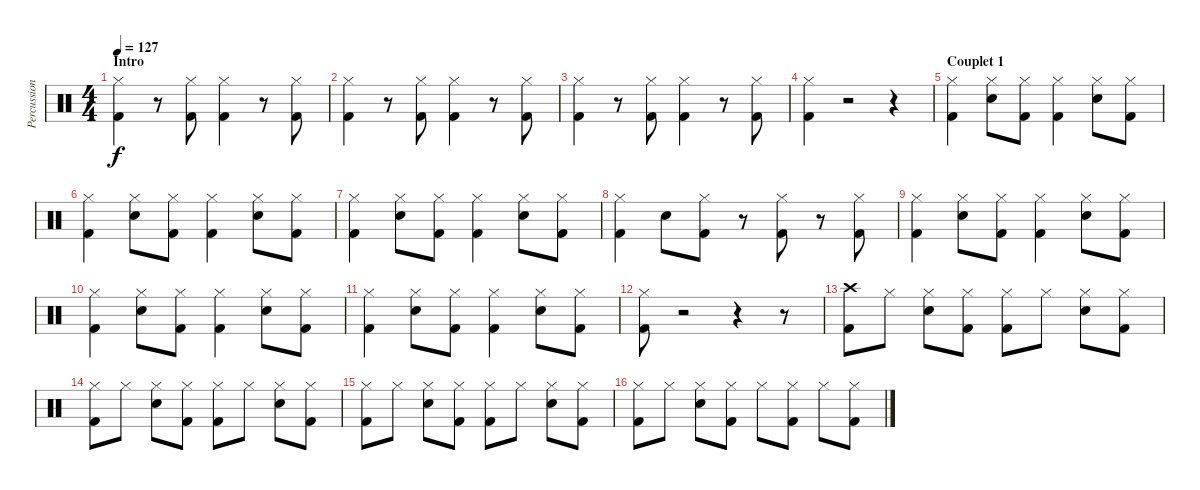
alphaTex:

\track ("Percussions" "Percussion") {instrument percussion}
\staff {score}
\articulation defaults
\ts (4 4)
\section ("" "Intro")
\tempo 127
\clef neutral
\ks c
("Hi-Hat (closed)" "Kick (hit) 2").4{dy f} r.8 ("Hi-Hat (closed)" "Kick (hit) 2").8 ("Hi-Hat (closed)" "Kick (hit) 2").4 r.8 ("Hi-Hat (closed)" "Kick (hit) 2").8 |
("Hi-Hat (closed)" "Kick (hit) 2").4 r.8 ("Hi-Hat (closed)" "Kick (hit) 2").8 ("Hi-Hat (closed)" "Kick (hit) 2").4 r.8 ("Hi-Hat (closed)" "Kick (hit) 2").8 |
("Hi-Hat (closed)" "Kick (hit) 2").4 r.8 ("Hi-Hat (closed)" "Kick (hit) 2").8 ("Hi-Hat (closed)" "Kick (hit) 2").4 r.8 ("Hi-Hat (closed)" "Kick (hit) 2").8 |
("Hi-Hat (closed)" "Kick (hit) 2").4 r.2 r.4 |
\section ("" "Couplet 1")
("Hi-Hat (closed)" "Kick (hit) 2").4 ("Hi-Hat (closed)" "Electric Snare (hit)").8 ("Hi-Hat (closed)" "Kick (hit) 2").8 ("Hi-Hat (closed)" "Kick (hit) 2").4 ("Hi-Hat (closed)" "Electric Snare (hit)").8 ("Hi-Hat (closed)" "Kick (hit) 2").8 |
("Hi-Hat (closed)" "Kick (hit) 2").4 ("Hi-Hat (closed)" "Electric Snare (hit)").8 ("Hi-Hat (closed)" "Kick (hit) 2").8 ("Hi-Hat (closed)" "Kick (hit) 2").4 ("Hi-Hat (closed)" "Electric Snare (hit)").8 ("Hi-Hat (closed)" "Kick (hit) 2").8 |
("Hi-Hat (closed)" "Kick (hit) 2").4 ("Hi-Hat (closed)" "Electric Snare (hit)").8 ("Hi-Hat (closed)" "Kick (hit) 2").8 ("Hi-Hat (closed)" "Kick (hit) 2").4 ("Hi-Hat (closed)" "Electric Snare (hit)").8 ("Hi-Hat (closed)" "Kick (hit) 2").8 |
("Hi-Hat (closed)" "Kick (hit) 2").4 "Electric Snare (hit)".8 ("Hi-Hat (closed)" "Kick (hit) 2").8 r.8 ("Hi-Hat (closed)" "Kick (hit) 2").8 r.8 ("Hi-Hat (closed)" "Kick (hit) 2").8 |
("Hi-Hat (closed)" "Kick (hit) 2").4 ("Hi-Hat (closed)" "Electric Snare (hit)").8 ("Hi-Hat (closed)" "Kick (hit) 2").8 ("Hi-Hat (closed)" "Kick (hit) 2").4 ("Hi-Hat (closed)" "Electric Snare (hit)").8 ("Hi-Hat (closed)" "Kick (hit) 2").8 |
("Hi-Hat (closed)" "Kick (hit) 2").4 ("Hi-Hat (closed)" "Electric Snare (hit)").8 ("Hi-Hat (closed)" "Kick (hit) 2").8 ("Hi-Hat (closed)" "Kick (hit) 2").4 ("Hi-Hat (closed)" "Electric Snare (hit)").8 ("Hi-Hat (closed)" "Kick (hit) 2").8 |
("Hi-Hat (closed)" "Kick (hit) 2").4 ("Hi-Hat (closed)" "Electric Snare (hit)").8 ("Hi-Hat (closed)" "Kick (hit) 2").8 ("Hi-Hat (closed)" "Kick (hit) 2").4 ("Hi-Hat (closed)" "Electric Snare (hit)").8 ("Hi-Hat (closed)" "Kick (hit) 2").8 |
("Hi-Hat (closed)" "Kick (hit) 2").8 r.2 r.4 r.8 |
("Crash high (hit)" "Kick (hit) 2").8 "Hi-Hat (closed)".8 ("Hi-Hat (closed)" "Electric Snare (hit)").8 ("Hi-Hat (closed)" "Kick (hit) 2").8 ("Hi-Hat (closed)" "Kick (hit) 2").8 "Hi-Hat (closed)".8 ("Hi-Hat (closed)" "Electric Snare (hit)").8 ("Hi-Hat (closed)" "Kick (hit) 2").8 |
("Hi-Hat (closed)" "Kick (hit) 2").8 "Hi-Hat (closed)".8 ("Hi-Hat (closed)" "Electric Snare (hit)").8 ("Hi-Hat (closed)" "Kick (hit) 2").8 ("Hi-Hat (closed)" "Kick (hit) 2").8 "Hi-Hat (closed)".8 ("Hi-Hat (closed)" "Electric Snare (hit)").8 ("Hi-Hat (closed)" "Kick (hit) 2").8 |
("Hi-Hat (closed)" "Kick (hit) 2").8 "Hi-Hat (closed)".8 ("Hi-Hat (closed)" "Electric Snare (hit)").8 ("Hi-Hat (closed)" "Kick (hit) 2").8 ("Hi-Hat (closed)" "Kick (hit) 2").8 "Hi-Hat (closed)".8 ("Hi-Hat (closed)" "Electric Snare (hit)").8 ("Hi-Hat (closed)" "Kick (hit) 2").8 |
("Hi-Hat (closed)" "Kick (hit) 2").8 "Hi-Hat (closed)".8 ("Hi-Hat (closed)" "Electric Snare (hit)").8 ("Hi-Hat (closed)" "Kick (hit) 2").8 "Hi-Hat (closed)".8 ("Hi-Hat (closed)" "Kick (hit) 2").8 "Hi-Hat (closed)".8 ("Hi-Hat (closed)" "Kick (hit) 2").8
